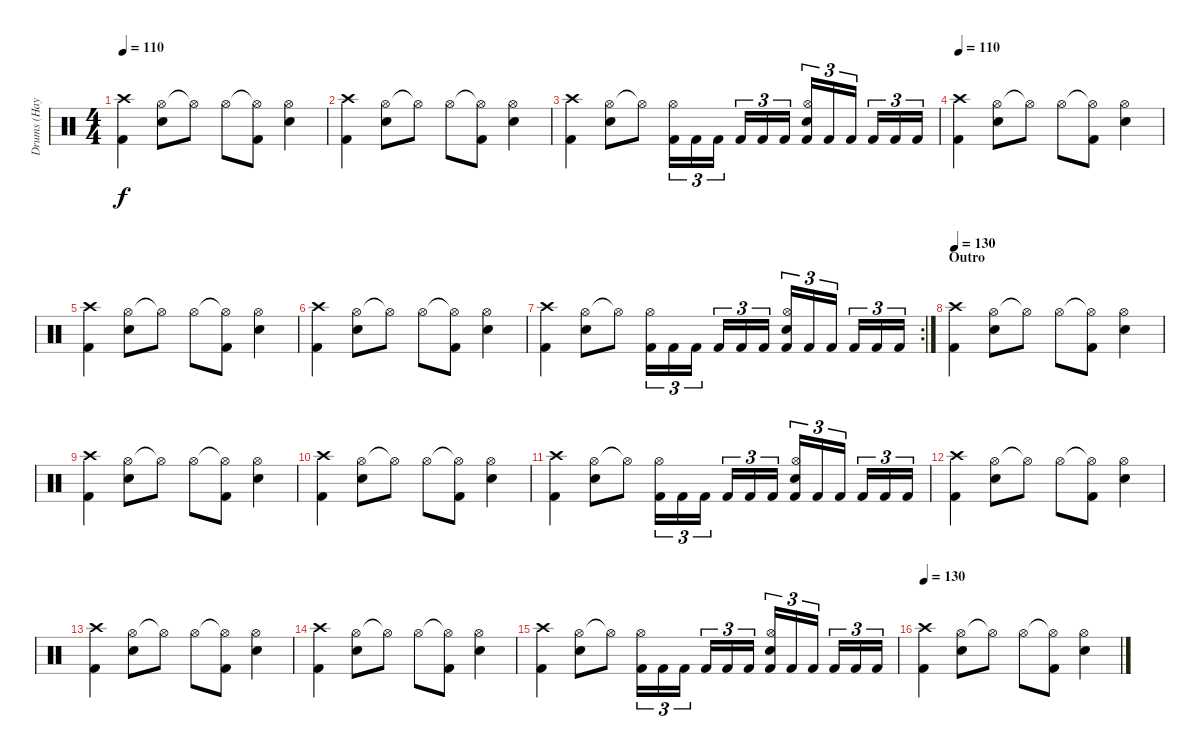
\track ("Drums (Hayden)" "Drums (Hay") {instrument percussion}
\staff {score}
\articulation defaults
\ts (4 4)
\tempo 110
\clef neutral
\ks c
("Crash high (hit)" "Kick (hit) 2").4{dy f} ("Hi-Hat (open)" "Electric Snare (hit)").8 "Hi-Hat (open)"{t}.8 "Hi-Hat (open)".8 ("Hi-Hat (open)"{t} "Kick (hit) 2").8 ("Hi-Hat (open)" "Electric Snare (hit)").4 |
("Crash high (hit)" "Kick (hit) 2").4 ("Hi-Hat (open)" "Electric Snare (hit)").8 "Hi-Hat (open)"{t}.8 "Hi-Hat (open)".8 ("Hi-Hat (open)"{t} "Kick (hit) 2").8 ("Hi-Hat (open)" "Electric Snare (hit)").4 |
("Crash high (hit)" "Kick (hit) 2").4 ("Hi-Hat (open)" "Electric Snare (hit)").8 "Hi-Hat (open)"{t}.8 ("Kick (hit) 2" "Hi-Hat (open)").16{tu (3 2)} "Kick (hit) 2".16{tu (3 2)} "Kick (hit) 2".16{tu (3 2)} "Kick (hit) 2".16{tu (3 2)} "Kick (hit) 2".16{tu (3 2)} "Kick (hit) 2".16{tu (3 2)} ("Kick (hit) 2" "Hi-Hat (open)" "Electric Snare (hit)").16{tu (3 2)} "Kick (hit) 2".16{tu (3 2)} "Kick (hit) 2".16{tu (3 2)} "Kick (hit) 2".16{tu (3 2)} "Kick (hit) 2".16{tu (3 2)} "Kick (hit) 2".16{tu (3 2)} |
\tempo 110
("Crash high (hit)" "Kick (hit) 2").4 ("Hi-Hat (open)" "Electric Snare (hit)").8 "Hi-Hat (open)"{t}.8 "Hi-Hat (open)".8 ("Hi-Hat (open)"{t} "Kick (hit) 2").8 ("Hi-Hat (open)" "Electric Snare (hit)").4 |
("Crash high (hit)" "Kick (hit) 2").4 ("Hi-Hat (open)" "Electric Snare (hit)").8 "Hi-Hat (open)"{t}.8 "Hi-Hat (open)".8 ("Hi-Hat (open)"{t} "Kick (hit) 2").8 ("Hi-Hat (open)" "Electric Snare (hit)").4 |
("Crash high (hit)" "Kick (hit) 2").4 ("Hi-Hat (open)" "Electric Snare (hit)").8 "Hi-Hat (open)"{t}.8 "Hi-Hat (open)".8 ("Hi-Hat (open)"{t} "Kick (hit) 2").8 ("Hi-Hat (open)" "Electric Snare (hit)").4 |
\rc 2
("Crash high (hit)" "Kick (hit) 2").4 ("Hi-Hat (open)" "Electric Snare (hit)").8 "Hi-Hat (open)"{t}.8 ("Kick (hit) 2" "Hi-Hat (open)").16{tu (3 2)} "Kick (hit) 2".16{tu (3 2)} "Kick (hit) 2".16{tu (3 2)} "Kick (hit) 2".16{tu (3 2)} "Kick (hit) 2".16{tu (3 2)} "Kick (hit) 2".16{tu (3 2)} ("Kick (hit) 2" "Hi-Hat (open)" "Electric Snare (hit)").16{tu (3 2)} "Kick (hit) 2".16{tu (3 2)} "Kick (hit) 2".16{tu (3 2)} "Kick (hit) 2".16{tu (3 2)} "Kick (hit) 2".16{tu (3 2)} "Kick (hit) 2".16{tu (3 2)} |
\section ("" "Outro")
\tempo 130
("Crash high (hit)" "Kick (hit) 2").4 ("Hi-Hat (open)" "Electric Snare (hit)").8 "Hi-Hat (open)"{t}.8 "Hi-Hat (open)".8 ("Hi-Hat (open)"{t} "Kick (hit) 2").8 ("Hi-Hat (open)" "Electric Snare (hit)").4 |
("Crash high (hit)" "Kick (hit) 2").4 ("Hi-Hat (open)" "Electric Snare (hit)").8 "Hi-Hat (open)"{t}.8 "Hi-Hat (open)".8 ("Hi-Hat (open)"{t} "Kick (hit) 2").8 ("Hi-Hat (open)" "Electric Snare (hit)").4 |
("Crash high (hit)" "Kick (hit) 2").4 ("Hi-Hat (open)" "Electric Snare (hit)").8 "Hi-Hat (open)"{t}.8 "Hi-Hat (open)".8 ("Hi-Hat (open)"{t} "Kick (hit) 2").8 ("Hi-Hat (open)" "Electric Snare (hit)").4 |
("Crash high (hit)" "Kick (hit) 2").4 ("Hi-Hat (open)" "Electric Snare (hit)").8 "Hi-Hat (open)"{t}.8 ("Kick (hit) 2" "Hi-Hat (open)").16{tu (3 2)} "Kick (hit) 2".16{tu (3 2)} "Kick (hit) 2".16{tu (3 2)} "Kick (hit) 2".16{tu (3 2)} "Kick (hit) 2".16{tu (3 2)} "Kick (hit) 2".16{tu (3 2)} ("Kick (hit) 2" "Hi-Hat (open)" "Electric Snare (hit)").16{tu (3 2)} "Kick (hit) 2".16{tu (3 2)} "Kick (hit) 2".16{tu (3 2)} "Kick (hit) 2".16{tu (3 2)} "Kick (hit) 2".16{tu (3 2)} "Kick (hit) 2".16{tu (3 2)} |
("Crash high (hit)" "Kick (hit) 2").4 ("Hi-Hat (open)" "Electric Snare (hit)").8 "Hi-Hat (open)"{t}.8 "Hi-Hat (open)".8 ("Hi-Hat (open)"{t} "Kick (hit) 2").8 ("Hi-Hat (open)" "Electric Snare (hit)").4 |
("Crash high (hit)" "Kick (hit) 2").4 ("Hi-Hat (open)" "Electric Snare (hit)").8 "Hi-Hat (open)"{t}.8 "Hi-Hat (open)".8 ("Hi-Hat (open)"{t} "Kick (hit) 2").8 ("Hi-Hat (open)" "Electric Snare (hit)").4 |
("Crash high (hit)" "Kick (hit) 2").4 ("Hi-Hat (open)" "Electric Snare (hit)").8 "Hi-Hat (open)"{t}.8 "Hi-Hat (open)".8 ("Hi-Hat (open)"{t} "Kick (hit) 2").8 ("Hi-Hat (open)" "Electric Snare (hit)").4 |
("Crash high (hit)" "Kick (hit) 2").4 ("Hi-Hat (open)" "Electric Snare (hit)").8 "Hi-Hat (open)"{t}.8 ("Kick (hit) 2" "Hi-Hat (open)").16{tu (3 2)} "Kick (hit) 2".16{tu (3 2)} "Kick (hit) 2".16{tu (3 2)} "Kick (hit) 2".16{tu (3 2)} "Kick (hit) 2".16{tu (3 2)} "Kick (hit) 2".16{tu (3 2)} ("Kick (hit) 2" "Hi-Hat (open)" "Electric Snare (hit)").16{tu (3 2)} "Kick (hit) 2".16{tu (3 2)} "Kick (hit) 2".16{tu (3 2)} "Kick (hit) 2".16{tu (3 2)} "Kick (hit) 2".16{tu (3 2)} "Kick (hit) 2".16{tu (3 2)} |
\tempo 130
("Crash high (hit)" "Kick (hit) 2").4 ("Hi-Hat (open)" "Electric Snare (hit)").8 "Hi-Hat (open)"{t}.8 "Hi-Hat (open)".8 ("Hi-Hat (open)"{t} "Kick (hit) 2").8 ("Hi-Hat (open)" "Electric Snare (hit)").4
